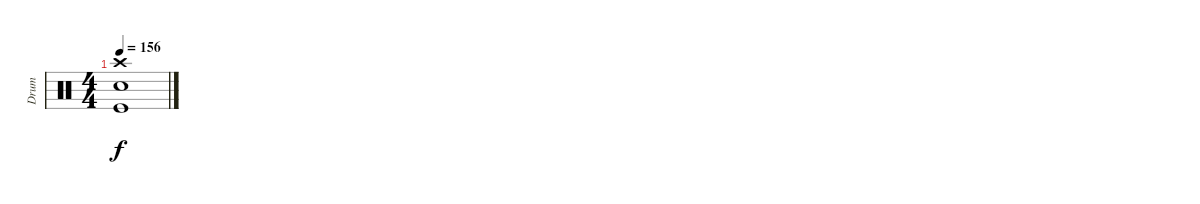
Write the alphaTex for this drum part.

\track ("Drum" "Drum") {instrument percussion}
\staff {score}
\articulation defaults
\ts (4 4)
\tempo 156
\clef neutral
\ks c
("Crash high (hit)" "Snare (hit) 2" "Kick (hit)").1{dy f}
